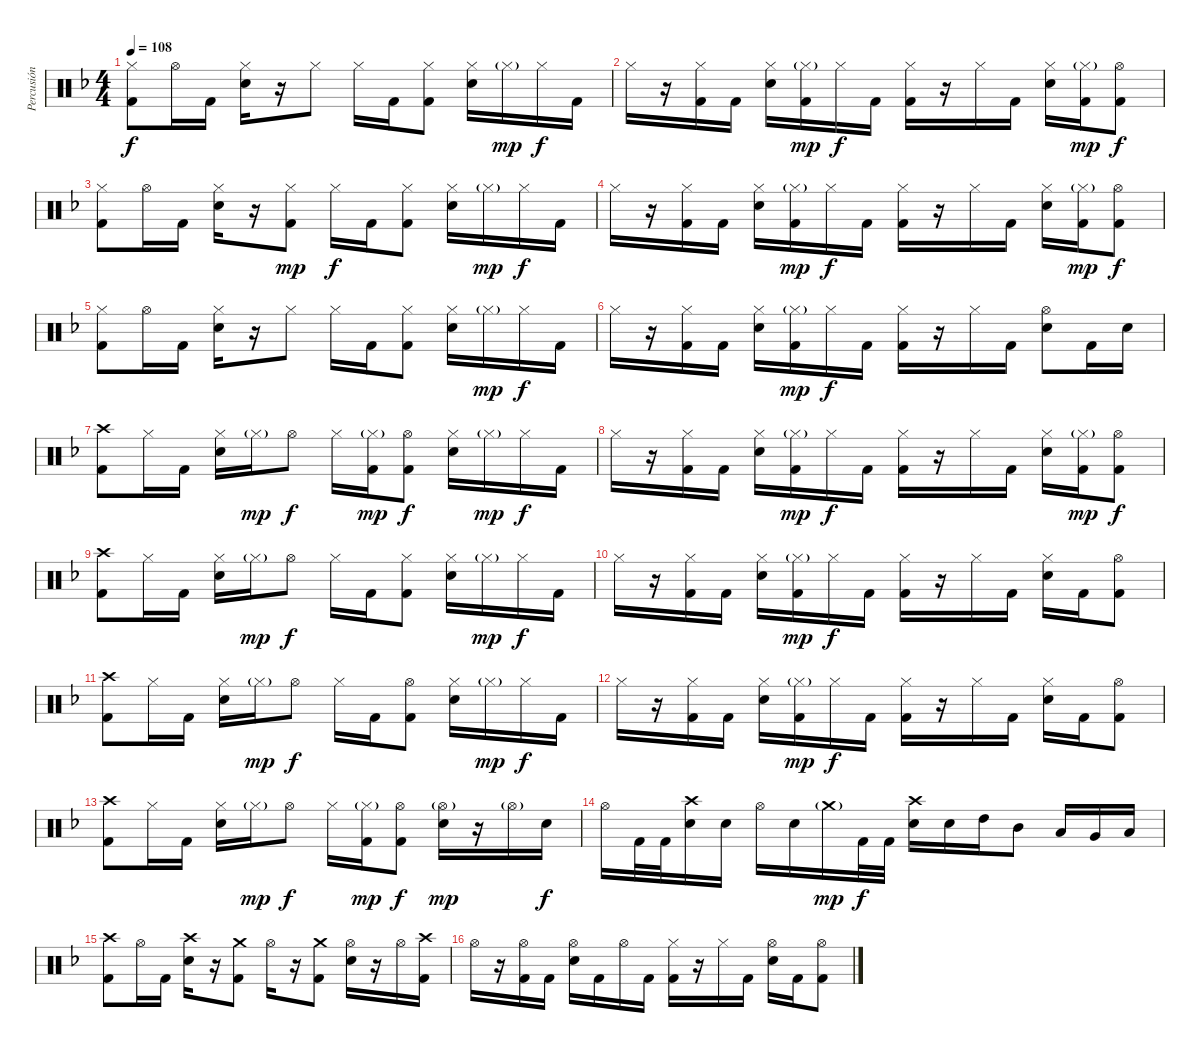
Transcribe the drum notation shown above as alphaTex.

\track ("Percusión" "Percusión") {instrument percussion}
\staff {score}
\articulation defaults
\ts (4 4)
\tempo 108
\clef neutral
\ks f
("Hi-Hat (closed)" "Kick (hit) 2").8{dy f} "Hi-Hat (open)".16 "Kick (hit) 2".16 ("Hi-Hat (closed)" "Snare (hit) 2").16 r.16 "Hi-Hat (closed)".8 "Hi-Hat (closed)".16 "Kick (hit) 2".16 ("Hi-Hat (closed)" "Kick (hit) 2").8 ("Hi-Hat (closed)" "Snare (hit) 2").16 "Hi-Hat (closed)"{g}.16{dy mp} "Hi-Hat (closed)".16{dy f} "Kick (hit) 2".16 |
"Hi-Hat (closed)".16 r.16 ("Hi-Hat (closed)" "Kick (hit) 2").16 "Kick (hit) 2".16 ("Hi-Hat (closed)" "Snare (hit) 2").16 ("Hi-Hat (closed)"{g} "Kick (hit) 2").16{dy mp} "Hi-Hat (closed)".16{dy f} "Kick (hit) 2".16 ("Hi-Hat (closed)" "Kick (hit) 2").16 r.16 "Hi-Hat (closed)".16 "Kick (hit) 2".16 ("Hi-Hat (closed)" "Snare (hit) 2").16 ("Hi-Hat (closed)"{g} "Kick (hit) 2").16{dy mp} ("Hi-Hat (open)" "Kick (hit) 2").8{dy f} |
("Hi-Hat (closed)" "Kick (hit) 2").8 "Hi-Hat (open)".16 "Kick (hit) 2".16 ("Hi-Hat (closed)" "Snare (hit) 2").16 r.16 ("Hi-Hat (closed)" "Kick (hit) 2").8{dy mp} "Hi-Hat (closed)".16{dy f} "Kick (hit) 2".16 ("Hi-Hat (closed)" "Kick (hit) 2").8 ("Hi-Hat (closed)" "Snare (hit) 2").16 "Hi-Hat (closed)"{g}.16{dy mp} "Hi-Hat (closed)".16{dy f} "Kick (hit) 2".16 |
"Hi-Hat (closed)".16 r.16 ("Hi-Hat (closed)" "Kick (hit) 2").16 "Kick (hit) 2".16 ("Hi-Hat (closed)" "Snare (hit) 2").16 ("Hi-Hat (closed)"{g} "Kick (hit) 2").16{dy mp} "Hi-Hat (closed)".16{dy f} "Kick (hit) 2".16 ("Hi-Hat (closed)" "Kick (hit) 2").16 r.16 "Hi-Hat (closed)".16 "Kick (hit) 2".16 ("Hi-Hat (closed)" "Snare (hit) 2").16 ("Hi-Hat (closed)"{g} "Kick (hit) 2").16{dy mp} ("Hi-Hat (open)" "Kick (hit) 2").8{dy f} |
("Hi-Hat (closed)" "Kick (hit) 2").8 "Hi-Hat (open)".16 "Kick (hit) 2".16 ("Hi-Hat (closed)" "Snare (hit) 2").16 r.16 "Hi-Hat (closed)".8 "Hi-Hat (closed)".16 "Kick (hit) 2".16 ("Hi-Hat (closed)" "Kick (hit) 2").8 ("Hi-Hat (closed)" "Snare (hit) 2").16 "Hi-Hat (closed)"{g}.16{dy mp} "Hi-Hat (closed)".16{dy f} "Kick (hit) 2".16 |
"Hi-Hat (closed)".16 r.16 ("Hi-Hat (closed)" "Kick (hit) 2").16 "Kick (hit) 2".16 ("Hi-Hat (closed)" "Snare (hit) 2").16 ("Hi-Hat (closed)"{g} "Kick (hit) 2").16{dy mp} "Hi-Hat (closed)".16{dy f} "Kick (hit) 2".16 ("Hi-Hat (closed)" "Kick (hit) 2").16 r.16 "Hi-Hat (closed)".16 "Kick (hit) 2".16 ("Hi-Hat (open)" "Snare (hit) 2").8 "Kick (hit) 2".16 "Snare (hit) 2".16 |
("Crash high (hit)" "Kick (hit) 2").8 "Hi-Hat (closed)".16 "Kick (hit) 2".16 ("Hi-Hat (closed)" "Snare (hit) 2").16 "Hi-Hat (closed)"{g}.16{dy mp} "Hi-Hat (open)".8{dy f} "Hi-Hat (closed)".16 ("Hi-Hat (closed)"{g} "Kick (hit) 2").16{dy mp} ("Hi-Hat (open)" "Kick (hit) 2").8{dy f} ("Hi-Hat (closed)" "Snare (hit) 2").16 "Hi-Hat (closed)"{g}.16{dy mp} "Hi-Hat (closed)".16{dy f} "Kick (hit) 2".16 |
"Hi-Hat (closed)".16 r.16 ("Hi-Hat (closed)" "Kick (hit) 2").16 "Kick (hit) 2".16 ("Hi-Hat (closed)" "Snare (hit) 2").16 ("Hi-Hat (closed)"{g} "Kick (hit) 2").16{dy mp} "Hi-Hat (closed)".16{dy f} "Kick (hit) 2".16 ("Hi-Hat (closed)" "Kick (hit) 2").16 r.16 "Hi-Hat (closed)".16 "Kick (hit) 2".16 ("Hi-Hat (closed)" "Snare (hit) 2").16 ("Hi-Hat (closed)"{g} "Kick (hit) 2").16{dy mp} ("Hi-Hat (open)" "Kick (hit) 2").8{dy f} |
("Crash high (hit)" "Kick (hit) 2").8 "Hi-Hat (closed)".16 "Kick (hit) 2".16 ("Hi-Hat (closed)" "Snare (hit) 2").16 "Hi-Hat (closed)"{g}.16{dy mp} "Hi-Hat (open)".8{dy f} "Hi-Hat (closed)".16 "Kick (hit) 2".16 ("Hi-Hat (closed)" "Kick (hit) 2").8 ("Hi-Hat (closed)" "Snare (hit) 2").16 "Hi-Hat (closed)"{g}.16{dy mp} "Hi-Hat (closed)".16{dy f} "Kick (hit) 2".16 |
"Hi-Hat (closed)".16 r.16 ("Hi-Hat (closed)" "Kick (hit) 2").16 "Kick (hit) 2".16 ("Hi-Hat (closed)" "Snare (hit) 2").16 ("Hi-Hat (closed)"{g} "Kick (hit) 2").16{dy mp} "Hi-Hat (closed)".16{dy f} "Kick (hit) 2".16 ("Hi-Hat (closed)" "Kick (hit) 2").16 r.16 "Hi-Hat (closed)".16 "Kick (hit) 2".16 ("Hi-Hat (closed)" "Snare (hit) 2").16 "Kick (hit) 2".16 ("Hi-Hat (open)" "Kick (hit) 2").8 |
("Crash high (hit)" "Kick (hit) 2").8 "Hi-Hat (closed)".16 "Kick (hit) 2".16 ("Hi-Hat (closed)" "Snare (hit) 2").16 "Hi-Hat (closed)"{g}.16{dy mp} "Hi-Hat (open)".8{dy f} "Hi-Hat (closed)".16 "Kick (hit) 2".16 ("Hi-Hat (open)" "Kick (hit) 2").8 ("Hi-Hat (closed)" "Snare (hit) 2").16 "Hi-Hat (closed)"{g}.16{dy mp} "Hi-Hat (closed)".16{dy f} "Kick (hit) 2".16 |
"Hi-Hat (closed)".16 r.16 ("Hi-Hat (closed)" "Kick (hit) 2").16 "Kick (hit) 2".16 ("Hi-Hat (closed)" "Snare (hit) 2").16 ("Hi-Hat (closed)"{g} "Kick (hit) 2").16{dy mp} "Hi-Hat (closed)".16{dy f} "Kick (hit) 2".16 ("Hi-Hat (closed)" "Kick (hit) 2").16 r.16 "Hi-Hat (closed)".16 "Kick (hit) 2".16 ("Hi-Hat (closed)" "Snare (hit) 2").16 "Kick (hit) 2".16 ("Hi-Hat (open)" "Kick (hit) 2").8 |
("Crash high (hit)" "Kick (hit) 2").8 "Hi-Hat (closed)".16 "Kick (hit) 2".16 ("Hi-Hat (closed)" "Snare (hit) 2").16 "Hi-Hat (closed)"{g}.16{dy mp} "Hi-Hat (open)".8{dy f} "Hi-Hat (closed)".16 ("Hi-Hat (closed)"{g} "Kick (hit) 2").16{dy mp} ("Hi-Hat (open)" "Kick (hit) 2").8{dy f} ("Hi-Hat (open)"{g} "Snare (hit) 2").16{dy mp} r.16 "Hi-Hat (open)"{g}.16 "Snare (hit) 2".16{dy f} |
"Hi-Hat (open)".16 "Kick (hit) 2".32 "Kick (hit) 2".32 ("Crash high (hit)" "Snare (hit) 2").16 "Snare (hit) 2".16 "Hi-Hat (open)".16 "Snare (hit) 2".16 "Crash medium (hit)"{g}.16{dy mp} "Kick (hit) 2".32{dy f} "Kick (hit) 2".32 ("Crash high (hit)" "Snare (hit) 2").16 "Snare (hit) 2".16 "High Tom (hit)".16 "Mid Tom (hit)".8 "Low Tom (hit)".16 "Very Low Tom (hit)".16 "Low Floor Tom (hit)".16 |
("Crash high (hit)" "Kick (hit) 2").8 "Hi-Hat (open)".16 "Kick (hit) 2".16 ("Crash high (hit)" "Snare (hit) 2").16 r.16 ("Crash medium (hit)" "Kick (hit) 2").8 "Hi-Hat (open)".16 r.16 ("Crash medium (hit)" "Kick (hit) 2").8 ("Hi-Hat (open)" "Snare (hit) 2").16 r.16 "Hi-Hat (open)".16 ("Crash high (hit)" "Kick (hit) 2").16 |
"Hi-Hat (open)".16 r.16 ("Hi-Hat (open)" "Kick (hit) 2").16 "Kick (hit) 2".16 ("Hi-Hat (open)" "Snare (hit) 2").16 "Kick (hit) 2".16 "Hi-Hat (open)".16 "Kick (hit) 2".16 ("Hi-Hat (closed)" "Kick (hit) 2").16 r.16 "Hi-Hat (closed)".16 "Kick (hit) 2".16 ("Hi-Hat (open)" "Snare (hit) 2").16 "Kick (hit) 2".16 ("Hi-Hat (open)" "Kick (hit) 2").8
